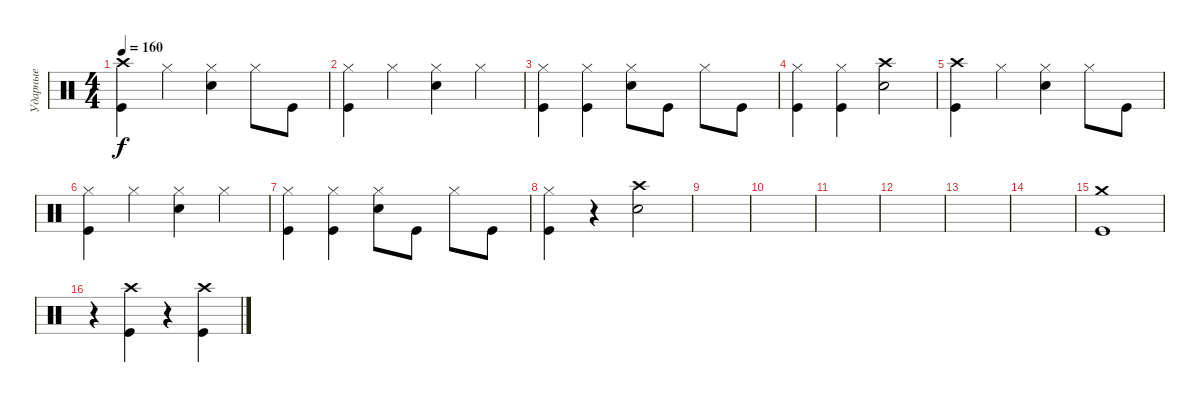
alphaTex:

\track ("Ударные" "Ударные") {instrument percussion}
\staff {score}
\articulation defaults
\ts (4 4)
\tempo 160
\clef neutral
\ks c
("Kick (hit)" "Crash high (hit)").4{dy f} "Hi-Hat (closed)".4 ("Hi-Hat (closed)" "Snare (hit) 2").4 "Hi-Hat (closed)".8 "Kick (hit)".8 |
("Kick (hit)" "Hi-Hat (closed)").4 "Hi-Hat (closed)".4 ("Hi-Hat (closed)" "Snare (hit) 2").4 "Hi-Hat (closed)".4 |
("Hi-Hat (closed)" "Kick (hit)").4 ("Hi-Hat (closed)" "Kick (hit)").4 ("Hi-Hat (closed)" "Snare (hit) 2").8 "Kick (hit)".8 "Hi-Hat (closed)".8 "Kick (hit)".8 |
("Hi-Hat (closed)" "Kick (hit)").4 ("Hi-Hat (closed)" "Kick (hit)").4 ("Crash high (hit)" "Snare (hit) 2").2 |
("Kick (hit)" "Crash high (hit)").4 "Hi-Hat (closed)".4 ("Hi-Hat (closed)" "Snare (hit) 2").4 "Hi-Hat (closed)".8 "Kick (hit)".8 |
("Kick (hit)" "Hi-Hat (closed)").4 "Hi-Hat (closed)".4 ("Hi-Hat (closed)" "Snare (hit) 2").4 "Hi-Hat (closed)".4 |
("Hi-Hat (closed)" "Kick (hit)").4 ("Hi-Hat (closed)" "Kick (hit)").4 ("Hi-Hat (closed)" "Snare (hit) 2").8 "Kick (hit)".8 "Hi-Hat (closed)".8 "Kick (hit)".8 |
("Hi-Hat (closed)" "Kick (hit)").4 r.4 ("Crash high (hit)" "Snare (hit) 2").2 |
|
|
|
|
|
|
("Kick (hit)" "Crash medium (hit)").1 |
r.4 ("Kick (hit)" "Crash high (hit)").4 r.4 ("Kick (hit)" "Crash high (hit)").4
